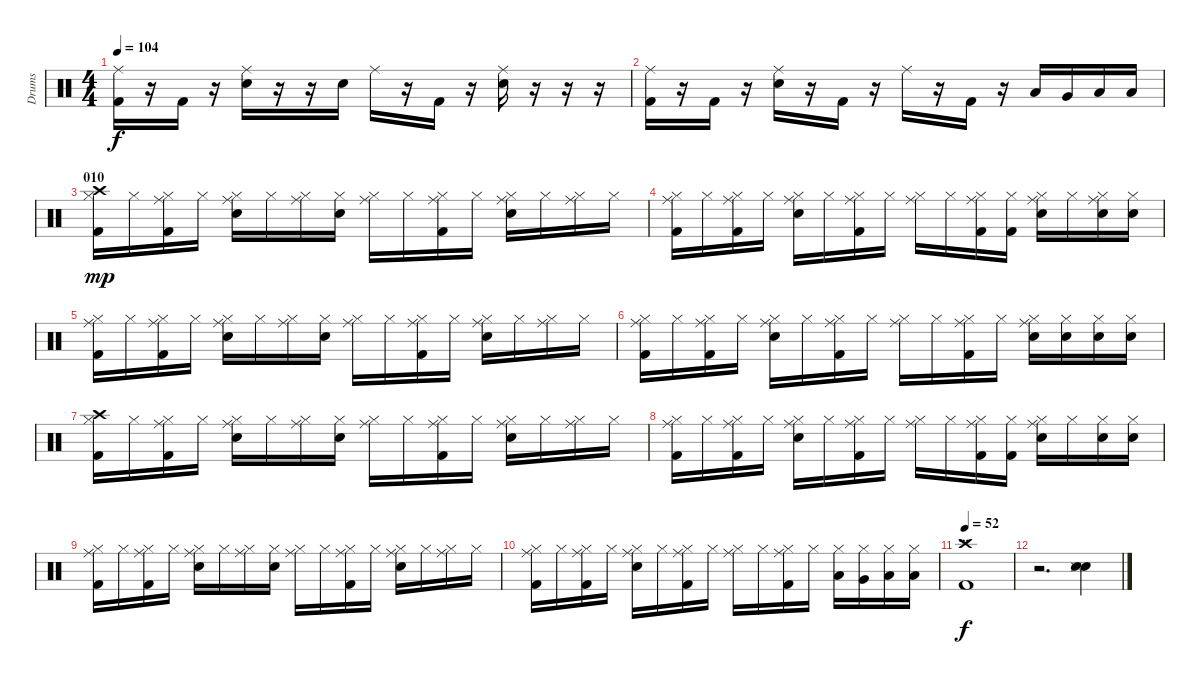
\track ("Drums" "Drums") {instrument percussion}
\staff {score}
\articulation defaults
\ts (4 4)
\tempo 104
\clef neutral
\ks c
("Kick (hit) 2" "Ride (middle)").16{dy f} r.16 "Kick (hit) 2".16 r.16 ("Electric Snare (hit)" "Ride (middle)").16 r.16 r.16 "Electric Snare (hit)".16 "Ride (middle)".16 r.16 "Kick (hit) 2".16 r.16 ("Electric Snare (hit)" "Ride (middle)").16 r.16 r.16 r.16 |
("Kick (hit) 2" "Ride (middle)").16 r.16 "Kick (hit) 2".16 r.16 ("Electric Snare (hit)" "Ride (middle)").16 r.16 "Kick (hit) 2".16 r.16 "Ride (middle)".16 r.16 "Kick (hit) 2".16 r.16 "Low Tom (hit)".16 "Very Low Tom (hit)".16 "Low Floor Tom (hit)".16 "Low Floor Tom (hit)".16 |
\section ("" "010")
("Kick (hit) 2" "Hi-Hat (closed)" "Crash high (hit)").16{dy mp} "Hi-Hat (closed)".16 ("Kick (hit) 2" "Hi-Hat (closed)" "Ride (middle)").16 "Hi-Hat (closed)".16 ("Electric Snare (hit)" "Hi-Hat (closed)" "Ride (middle)").16 "Hi-Hat (closed)".16 ("Hi-Hat (closed)" "Ride (middle)").16 ("Electric Snare (hit)" "Hi-Hat (closed)").16 ("Hi-Hat (closed)" "Ride (middle)").16 "Hi-Hat (closed)".16 ("Kick (hit) 2" "Hi-Hat (closed)" "Ride (middle)").16 "Hi-Hat (closed)".16 ("Electric Snare (hit)" "Hi-Hat (closed)" "Ride (middle)").16 "Hi-Hat (closed)".16 ("Hi-Hat (closed)" "Ride (middle)").16 "Hi-Hat (closed)".16 |
("Kick (hit) 2" "Hi-Hat (closed)" "Ride (middle)").16 "Hi-Hat (closed)".16 ("Kick (hit) 2" "Hi-Hat (closed)" "Ride (middle)").16 "Hi-Hat (closed)".16 ("Electric Snare (hit)" "Hi-Hat (closed)" "Ride (middle)").16 "Hi-Hat (closed)".16 ("Kick (hit) 2" "Hi-Hat (closed)" "Ride (middle)").16 "Hi-Hat (closed)".16 ("Hi-Hat (closed)" "Ride (middle)").16 "Hi-Hat (closed)".16 ("Kick (hit) 2" "Hi-Hat (closed)" "Ride (middle)").16 ("Kick (hit) 2" "Hi-Hat (closed)").16 ("Electric Snare (hit)" "Hi-Hat (closed)" "Ride (middle)").16 "Hi-Hat (closed)".16 ("Electric Snare (hit)" "Hi-Hat (closed)" "Ride (middle)").16 ("Electric Snare (hit)" "Hi-Hat (closed)").16 |
("Kick (hit) 2" "Hi-Hat (closed)" "Ride (middle)").16 "Hi-Hat (closed)".16 ("Kick (hit) 2" "Hi-Hat (closed)" "Ride (middle)").16 "Hi-Hat (closed)".16 ("Electric Snare (hit)" "Hi-Hat (closed)" "Ride (middle)").16 "Hi-Hat (closed)".16 ("Hi-Hat (closed)" "Ride (middle)").16 ("Electric Snare (hit)" "Hi-Hat (closed)").16 ("Hi-Hat (closed)" "Ride (middle)").16 "Hi-Hat (closed)".16 ("Kick (hit) 2" "Hi-Hat (closed)" "Ride (middle)").16 "Hi-Hat (closed)".16 ("Electric Snare (hit)" "Hi-Hat (closed)" "Ride (middle)").16 "Hi-Hat (closed)".16 ("Hi-Hat (closed)" "Ride (middle)").16 "Hi-Hat (closed)".16 |
("Kick (hit) 2" "Hi-Hat (closed)" "Ride (middle)").16 "Hi-Hat (closed)".16 ("Kick (hit) 2" "Hi-Hat (closed)" "Ride (middle)").16 "Hi-Hat (closed)".16 ("Electric Snare (hit)" "Hi-Hat (closed)" "Ride (middle)").16 "Hi-Hat (closed)".16 ("Kick (hit) 2" "Hi-Hat (closed)" "Ride (middle)").16 "Hi-Hat (closed)".16 ("Hi-Hat (closed)" "Ride (middle)").16 "Hi-Hat (closed)".16 ("Kick (hit) 2" "Hi-Hat (closed)" "Ride (middle)").16 "Hi-Hat (closed)".16 ("Electric Snare (hit)" "Hi-Hat (closed)" "Ride (middle)").16 ("Electric Snare (hit)" "Hi-Hat (closed)").16 ("Electric Snare (hit)" "Hi-Hat (closed)").16 ("Electric Snare (hit)" "Hi-Hat (closed)").16 |
("Kick (hit) 2" "Hi-Hat (closed)" "Crash high (hit)").16 "Hi-Hat (closed)".16 ("Kick (hit) 2" "Hi-Hat (closed)" "Ride (middle)").16 "Hi-Hat (closed)".16 ("Electric Snare (hit)" "Hi-Hat (closed)" "Ride (middle)").16 "Hi-Hat (closed)".16 ("Hi-Hat (closed)" "Ride (middle)").16 ("Electric Snare (hit)" "Hi-Hat (closed)").16 ("Hi-Hat (closed)" "Ride (middle)").16 "Hi-Hat (closed)".16 ("Kick (hit) 2" "Hi-Hat (closed)" "Ride (middle)").16 "Hi-Hat (closed)".16 ("Electric Snare (hit)" "Hi-Hat (closed)" "Ride (middle)").16 "Hi-Hat (closed)".16 ("Hi-Hat (closed)" "Ride (middle)").16 "Hi-Hat (closed)".16 |
("Kick (hit) 2" "Hi-Hat (closed)" "Ride (middle)").16 "Hi-Hat (closed)".16 ("Kick (hit) 2" "Hi-Hat (closed)" "Ride (middle)").16 "Hi-Hat (closed)".16 ("Electric Snare (hit)" "Hi-Hat (closed)" "Ride (middle)").16 "Hi-Hat (closed)".16 ("Kick (hit) 2" "Hi-Hat (closed)" "Ride (middle)").16 "Hi-Hat (closed)".16 ("Hi-Hat (closed)" "Ride (middle)").16 "Hi-Hat (closed)".16 ("Kick (hit) 2" "Hi-Hat (closed)" "Ride (middle)").16 ("Kick (hit) 2" "Hi-Hat (closed)").16 ("Electric Snare (hit)" "Hi-Hat (closed)" "Ride (middle)").16 "Hi-Hat (closed)".16 ("Electric Snare (hit)" "Hi-Hat (closed)").16 ("Electric Snare (hit)" "Hi-Hat (closed)").16 |
("Kick (hit) 2" "Hi-Hat (closed)" "Ride (middle)").16 "Hi-Hat (closed)".16 ("Kick (hit) 2" "Hi-Hat (closed)" "Ride (middle)").16 "Hi-Hat (closed)".16 ("Electric Snare (hit)" "Hi-Hat (closed)" "Ride (middle)").16 "Hi-Hat (closed)".16 ("Hi-Hat (closed)" "Ride (middle)").16 ("Electric Snare (hit)" "Hi-Hat (closed)").16 ("Hi-Hat (closed)" "Ride (middle)").16 "Hi-Hat (closed)".16 ("Kick (hit) 2" "Hi-Hat (closed)" "Ride (middle)").16 "Hi-Hat (closed)".16 ("Electric Snare (hit)" "Hi-Hat (closed)" "Ride (middle)").16 "Hi-Hat (closed)".16 ("Hi-Hat (closed)" "Ride (middle)").16 "Hi-Hat (closed)".16 |
("Kick (hit) 2" "Hi-Hat (closed)" "Ride (middle)").16 "Hi-Hat (closed)".16 ("Kick (hit) 2" "Hi-Hat (closed)" "Ride (middle)").16 "Hi-Hat (closed)".16 ("Electric Snare (hit)" "Hi-Hat (closed)" "Ride (middle)").16 "Hi-Hat (closed)".16 ("Kick (hit) 2" "Hi-Hat (closed)" "Ride (middle)").16 "Hi-Hat (closed)".16 ("Hi-Hat (closed)" "Ride (middle)").16 "Hi-Hat (closed)".16 ("Kick (hit) 2" "Hi-Hat (closed)" "Ride (middle)").16 "Hi-Hat (closed)".16 ("Low Tom (hit)" "Hi-Hat (closed)").16 ("Very Low Tom (hit)" "Hi-Hat (closed)").16 ("Low Floor Tom (hit)" "Hi-Hat (closed)").16 ("Low Floor Tom (hit)" "Hi-Hat (closed)").16 |
\section ("" "...")
\tempo 52
("Crash high (hit)" "Kick (hit) 2").1{dy f} |
r.2{d} ("Snare (hit)" "Snare (hit)" "Snare (side stick) 3").4
